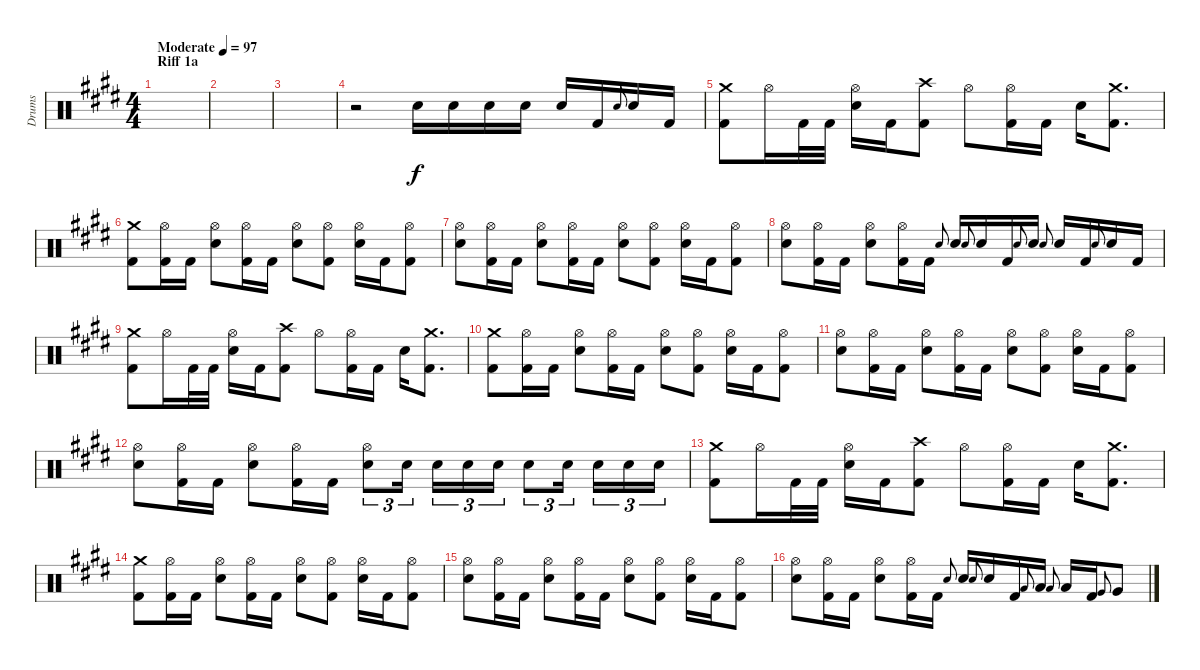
\track ("Drums" "Drums") {instrument percussion}
\staff {score}
\articulation defaults
\ts (4 4)
\section ("" "Riff 1a")
\tempo (97 "Moderate")
\clef neutral
\ks e
|
|
|
r.2 "Electric Snare (hit)".16 "Electric Snare (hit)".16 "Electric Snare (hit)".16 "Electric Snare (hit)".16 "Electric Snare (hit)".16 "Kick (hit) 2".16 "Electric Snare (hit)".8{gr onbeat} "Electric Snare (hit)".16 "Kick (hit) 2".16 |
("Kick (hit) 2" "Crash medium (hit)").8 "Hi-Hat (open)".16 "Kick (hit) 2".32 "Kick (hit) 2".32 ("Hi-Hat (open)" "Electric Snare (hit)").16 "Kick (hit) 2".16 ("Crash high (hit)" "Kick (hit) 2").8 "Hi-Hat (open)".8 ("Kick (hit) 2" "Hi-Hat (open)").16 "Kick (hit) 2".16 "Electric Snare (hit)".16 ("Kick (hit) 2" "Crash medium (hit)").8{d} |
("Crash medium (hit)" "Kick (hit) 2").8 ("Hi-Hat (open)" "Kick (hit) 2").16 "Kick (hit) 2".16 ("Hi-Hat (open)" "Electric Snare (hit)").8 ("Hi-Hat (open)" "Kick (hit) 2").16 "Kick (hit) 2".16 ("Hi-Hat (open)" "Electric Snare (hit)").8 ("Kick (hit) 2" "Hi-Hat (open)").8 ("Electric Snare (hit)" "Hi-Hat (open)").16 "Kick (hit) 2".16 ("Kick (hit) 2" "Hi-Hat (open)").8 |
("Hi-Hat (open)" "Electric Snare (hit)").8 ("Hi-Hat (open)" "Kick (hit) 2").16 "Kick (hit) 2".16 ("Hi-Hat (open)" "Electric Snare (hit)").8 ("Hi-Hat (open)" "Kick (hit) 2").16 "Kick (hit) 2".16 ("Hi-Hat (open)" "Electric Snare (hit)").8 ("Kick (hit) 2" "Hi-Hat (open)").8 ("Electric Snare (hit)" "Hi-Hat (open)").16 "Kick (hit) 2".16 ("Kick (hit) 2" "Hi-Hat (open)").8 |
("Hi-Hat (open)" "Electric Snare (hit)").8 ("Hi-Hat (open)" "Kick (hit) 2").16 "Kick (hit) 2".16 ("Hi-Hat (open)" "Electric Snare (hit)").8 ("Hi-Hat (open)" "Kick (hit) 2").16 "Kick (hit) 2".16 "Electric Snare (hit)".8{gr onbeat} "Electric Snare (hit)".16 "Electric Snare (hit)".8{gr onbeat} "Electric Snare (hit)".16 "Kick (hit) 2".16 "Electric Snare (hit)".8{gr onbeat} "Electric Snare (hit)".16 "Electric Snare (hit)".8{gr onbeat} "Electric Snare (hit)".16 "Kick (hit) 2".16 "Electric Snare (hit)".8{gr onbeat} "Electric Snare (hit)".16 "Kick (hit) 2".16 |
("Kick (hit) 2" "Crash medium (hit)").8 "Hi-Hat (open)".16 "Kick (hit) 2".32 "Kick (hit) 2".32 ("Hi-Hat (open)" "Electric Snare (hit)").16 "Kick (hit) 2".16 ("Crash high (hit)" "Kick (hit) 2").8 "Hi-Hat (open)".8 ("Kick (hit) 2" "Hi-Hat (open)").16 "Kick (hit) 2".16 "Electric Snare (hit)".16 ("Kick (hit) 2" "Crash medium (hit)").8{d} |
("Crash medium (hit)" "Kick (hit) 2").8 ("Hi-Hat (open)" "Kick (hit) 2").16 "Kick (hit) 2".16 ("Hi-Hat (open)" "Electric Snare (hit)").8 ("Hi-Hat (open)" "Kick (hit) 2").16 "Kick (hit) 2".16 ("Hi-Hat (open)" "Electric Snare (hit)").8 ("Kick (hit) 2" "Hi-Hat (open)").8 ("Electric Snare (hit)" "Hi-Hat (open)").16 "Kick (hit) 2".16 ("Kick (hit) 2" "Hi-Hat (open)").8 |
("Hi-Hat (open)" "Electric Snare (hit)").8 ("Hi-Hat (open)" "Kick (hit) 2").16 "Kick (hit) 2".16 ("Hi-Hat (open)" "Electric Snare (hit)").8 ("Hi-Hat (open)" "Kick (hit) 2").16 "Kick (hit) 2".16 ("Hi-Hat (open)" "Electric Snare (hit)").8 ("Kick (hit) 2" "Hi-Hat (open)").8 ("Electric Snare (hit)" "Hi-Hat (open)").16 "Kick (hit) 2".16 ("Kick (hit) 2" "Hi-Hat (open)").8 |
("Hi-Hat (open)" "Electric Snare (hit)").8 ("Hi-Hat (open)" "Kick (hit) 2").16 "Kick (hit) 2".16 ("Hi-Hat (open)" "Electric Snare (hit)").8 ("Hi-Hat (open)" "Kick (hit) 2").16 "Kick (hit) 2".16 ("Electric Snare (hit)" "Hi-Hat (open)").8{tu (3 2)} "Electric Snare (hit)".16{tu (3 2) beam splitsecondary} "Electric Snare (hit)".16{tu (3 2)} "Electric Snare (hit)".16{tu (3 2)} "Electric Snare (hit)".16{tu (3 2)} "Electric Snare (hit)".8{tu (3 2)} "Electric Snare (hit)".16{tu (3 2) beam splitsecondary} "Electric Snare (hit)".16{tu (3 2)} "Electric Snare (hit)".16{tu (3 2)} "Electric Snare (hit)".16{tu (3 2)} |
("Kick (hit) 2" "Crash medium (hit)").8 "Hi-Hat (open)".16 "Kick (hit) 2".32 "Kick (hit) 2".32 ("Hi-Hat (open)" "Electric Snare (hit)").16 "Kick (hit) 2".16 ("Crash high (hit)" "Kick (hit) 2").8 "Hi-Hat (open)".8 ("Kick (hit) 2" "Hi-Hat (open)").16 "Kick (hit) 2".16 "Electric Snare (hit)".16 ("Kick (hit) 2" "Crash medium (hit)").8{d} |
("Crash medium (hit)" "Kick (hit) 2").8 ("Hi-Hat (open)" "Kick (hit) 2").16 "Kick (hit) 2".16 ("Hi-Hat (open)" "Electric Snare (hit)").8 ("Hi-Hat (open)" "Kick (hit) 2").16 "Kick (hit) 2".16 ("Hi-Hat (open)" "Electric Snare (hit)").8 ("Kick (hit) 2" "Hi-Hat (open)").8 ("Electric Snare (hit)" "Hi-Hat (open)").16 "Kick (hit) 2".16 ("Kick (hit) 2" "Hi-Hat (open)").8 |
("Hi-Hat (open)" "Electric Snare (hit)").8 ("Hi-Hat (open)" "Kick (hit) 2").16 "Kick (hit) 2".16 ("Hi-Hat (open)" "Electric Snare (hit)").8 ("Hi-Hat (open)" "Kick (hit) 2").16 "Kick (hit) 2".16 ("Hi-Hat (open)" "Electric Snare (hit)").8 ("Kick (hit) 2" "Hi-Hat (open)").8 ("Electric Snare (hit)" "Hi-Hat (open)").16 "Kick (hit) 2".16 ("Kick (hit) 2" "Hi-Hat (open)").8 |
("Hi-Hat (open)" "Electric Snare (hit)").8 ("Hi-Hat (open)" "Kick (hit) 2").16 "Kick (hit) 2".16 ("Hi-Hat (open)" "Electric Snare (hit)").8 ("Hi-Hat (open)" "Kick (hit) 2").16 "Kick (hit) 2".16 "Electric Snare (hit)".8{gr onbeat} "Electric Snare (hit)".16 "Electric Snare (hit)".8{gr onbeat} "Electric Snare (hit)".16 "Kick (hit) 2".16 "Low Tom (hit)".8{gr onbeat} "Low Tom (hit)".16 "Low Tom (hit)".8{gr onbeat} "Low Tom (hit)".16 "Kick (hit) 2".16 "Very Low Tom (hit)".8{gr onbeat} "Very Low Tom (hit)".8
